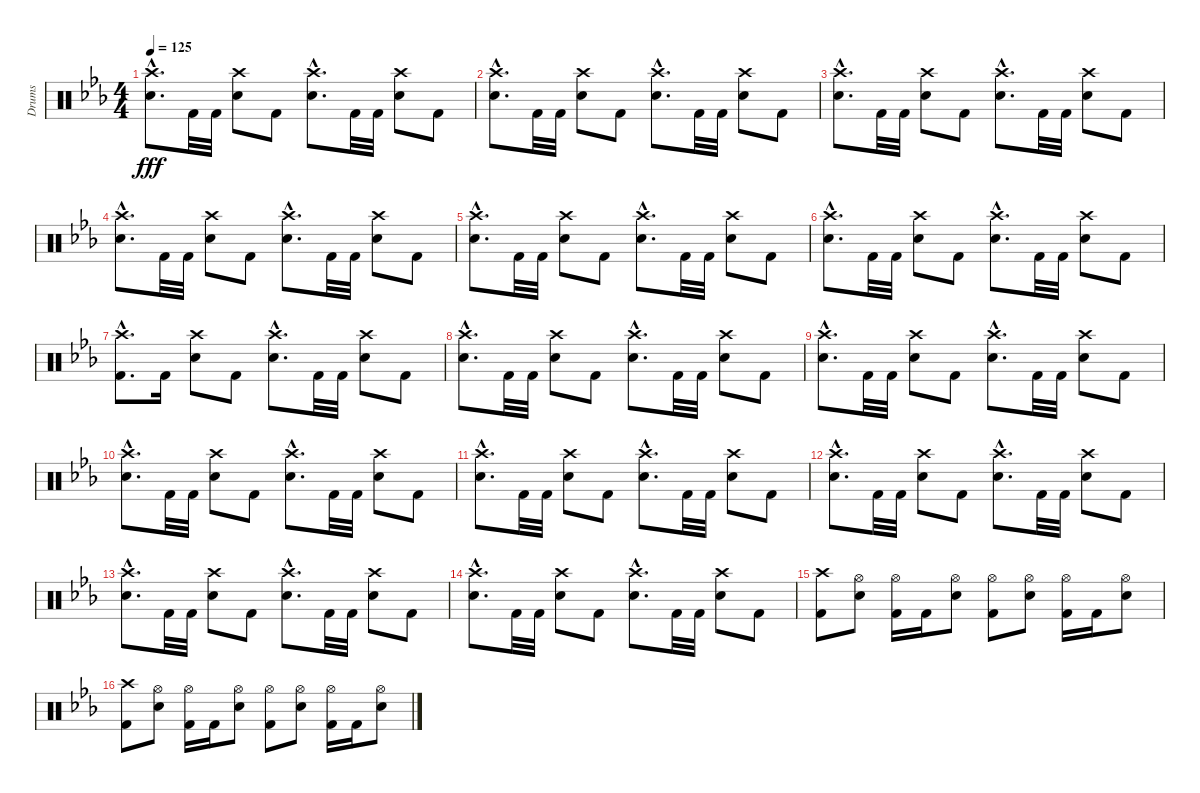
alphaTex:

\track ("Drums" "Drums") {instrument percussion}
\staff {score}
\articulation defaults
\ts (4 4)
\tempo 125
\clef neutral
\ks cminor
("Crash high (hit)"{hac} "Snare (hit) 2"{hac}).8{d dy fff} "Kick (hit) 2".32 "Kick (hit) 2".32 ("Crash high (hit)" "Snare (hit) 2").8 "Kick (hit) 2".8 ("Crash high (hit)"{hac} "Snare (hit) 2"{hac}).8{d} "Kick (hit) 2".32 "Kick (hit) 2".32 ("Crash high (hit)" "Snare (hit) 2").8 "Kick (hit) 2".8 |
("Crash high (hit)"{hac} "Snare (hit) 2"{hac}).8{d} "Kick (hit) 2".32 "Kick (hit) 2".32 ("Crash high (hit)" "Snare (hit) 2").8 "Kick (hit) 2".8 ("Crash high (hit)"{hac} "Snare (hit) 2"{hac}).8{d} "Kick (hit) 2".32 "Kick (hit) 2".32 ("Crash high (hit)" "Snare (hit) 2").8 "Kick (hit) 2".8 |
("Crash high (hit)"{hac} "Snare (hit) 2"{hac}).8{d} "Kick (hit) 2".32 "Kick (hit) 2".32 ("Crash high (hit)" "Snare (hit) 2").8 "Kick (hit) 2".8 ("Crash high (hit)"{hac} "Snare (hit) 2"{hac}).8{d} "Kick (hit) 2".32 "Kick (hit) 2".32 ("Crash high (hit)" "Snare (hit) 2").8 "Kick (hit) 2".8 |
("Crash high (hit)"{hac} "Snare (hit) 2"{hac}).8{d} "Kick (hit) 2".32 "Kick (hit) 2".32 ("Crash high (hit)" "Snare (hit) 2").8 "Kick (hit) 2".8 ("Crash high (hit)"{hac} "Snare (hit) 2"{hac}).8{d} "Kick (hit) 2".32 "Kick (hit) 2".32 ("Crash high (hit)" "Snare (hit) 2").8 "Kick (hit) 2".8 |
("Crash high (hit)"{hac} "Snare (hit) 2"{hac}).8{d} "Kick (hit) 2".32 "Kick (hit) 2".32 ("Crash high (hit)" "Snare (hit) 2").8 "Kick (hit) 2".8 ("Crash high (hit)"{hac} "Snare (hit) 2"{hac}).8{d} "Kick (hit) 2".32 "Kick (hit) 2".32 ("Crash high (hit)" "Snare (hit) 2").8 "Kick (hit) 2".8 |
("Crash high (hit)"{hac} "Snare (hit) 2"{hac}).8{d} "Kick (hit) 2".32 "Kick (hit) 2".32 ("Crash high (hit)" "Snare (hit) 2").8 "Kick (hit) 2".8 ("Crash high (hit)"{hac} "Snare (hit) 2"{hac}).8{d} "Kick (hit) 2".32 "Kick (hit) 2".32 ("Crash high (hit)" "Snare (hit) 2").8 "Kick (hit) 2".8 |
("Crash high (hit)"{hac} "Kick (hit) 2"{hac}).8{d} "Kick (hit) 2".16 ("Crash high (hit)" "Snare (hit) 2").8 "Kick (hit) 2".8 ("Crash high (hit)"{hac} "Snare (hit) 2"{hac}).8{d} "Kick (hit) 2".32 "Kick (hit) 2".32 ("Crash high (hit)" "Snare (hit) 2").8 "Kick (hit) 2".8 |
("Crash high (hit)"{hac} "Snare (hit) 2"{hac}).8{d} "Kick (hit) 2".32 "Kick (hit) 2".32 ("Crash high (hit)" "Snare (hit) 2").8 "Kick (hit) 2".8 ("Crash high (hit)"{hac} "Snare (hit) 2"{hac}).8{d} "Kick (hit) 2".32 "Kick (hit) 2".32 ("Crash high (hit)" "Snare (hit) 2").8 "Kick (hit) 2".8 |
("Crash high (hit)"{hac} "Snare (hit) 2"{hac}).8{d} "Kick (hit) 2".32 "Kick (hit) 2".32 ("Crash high (hit)" "Snare (hit) 2").8 "Kick (hit) 2".8 ("Crash high (hit)"{hac} "Snare (hit) 2"{hac}).8{d} "Kick (hit) 2".32 "Kick (hit) 2".32 ("Crash high (hit)" "Snare (hit) 2").8 "Kick (hit) 2".8 |
("Crash high (hit)"{hac} "Snare (hit) 2"{hac}).8{d} "Kick (hit) 2".32 "Kick (hit) 2".32 ("Crash high (hit)" "Snare (hit) 2").8 "Kick (hit) 2".8 ("Crash high (hit)"{hac} "Snare (hit) 2"{hac}).8{d} "Kick (hit) 2".32 "Kick (hit) 2".32 ("Crash high (hit)" "Snare (hit) 2").8 "Kick (hit) 2".8 |
("Crash high (hit)"{hac} "Snare (hit) 2"{hac}).8{d} "Kick (hit) 2".32 "Kick (hit) 2".32 ("Crash high (hit)" "Snare (hit) 2").8 "Kick (hit) 2".8 ("Crash high (hit)"{hac} "Snare (hit) 2"{hac}).8{d} "Kick (hit) 2".32 "Kick (hit) 2".32 ("Crash high (hit)" "Snare (hit) 2").8 "Kick (hit) 2".8 |
("Crash high (hit)"{hac} "Snare (hit) 2"{hac}).8{d} "Kick (hit) 2".32 "Kick (hit) 2".32 ("Crash high (hit)" "Snare (hit) 2").8 "Kick (hit) 2".8 ("Crash high (hit)"{hac} "Snare (hit) 2"{hac}).8{d} "Kick (hit) 2".32 "Kick (hit) 2".32 ("Crash high (hit)" "Snare (hit) 2").8 "Kick (hit) 2".8 |
("Crash high (hit)"{hac} "Snare (hit) 2"{hac}).8{d} "Kick (hit) 2".32 "Kick (hit) 2".32 ("Crash high (hit)" "Snare (hit) 2").8 "Kick (hit) 2".8 ("Crash high (hit)"{hac} "Snare (hit) 2"{hac}).8{d} "Kick (hit) 2".32 "Kick (hit) 2".32 ("Crash high (hit)" "Snare (hit) 2").8 "Kick (hit) 2".8 |
("Crash high (hit)"{hac} "Snare (hit) 2"{hac}).8{d} "Kick (hit) 2".32 "Kick (hit) 2".32 ("Crash high (hit)" "Snare (hit) 2").8 "Kick (hit) 2".8 ("Crash high (hit)"{hac} "Snare (hit) 2"{hac}).8{d} "Kick (hit) 2".32 "Kick (hit) 2".32 ("Crash high (hit)" "Snare (hit) 2").8 "Kick (hit) 2".8 |
("Crash high (hit)" "Kick (hit) 2").8 ("Hi-Hat (open)" "Snare (hit) 2").8 ("Hi-Hat (open)" "Kick (hit) 2").16 "Kick (hit) 2".16 ("Hi-Hat (open)" "Snare (hit) 2").8 ("Hi-Hat (open)" "Kick (hit) 2").8 ("Hi-Hat (open)" "Snare (hit) 2").8 ("Hi-Hat (open)" "Kick (hit) 2").16 "Kick (hit) 2".16 ("Hi-Hat (open)" "Snare (hit) 2").8 |
("Crash high (hit)" "Kick (hit) 2").8 ("Hi-Hat (open)" "Snare (hit) 2").8 ("Hi-Hat (open)" "Kick (hit) 2").16 "Kick (hit) 2".16 ("Hi-Hat (open)" "Snare (hit) 2").8 ("Hi-Hat (open)" "Kick (hit) 2").8 ("Hi-Hat (open)" "Snare (hit) 2").8 ("Hi-Hat (open)" "Kick (hit) 2").16 "Kick (hit) 2".16 ("Hi-Hat (open)" "Snare (hit) 2").8
